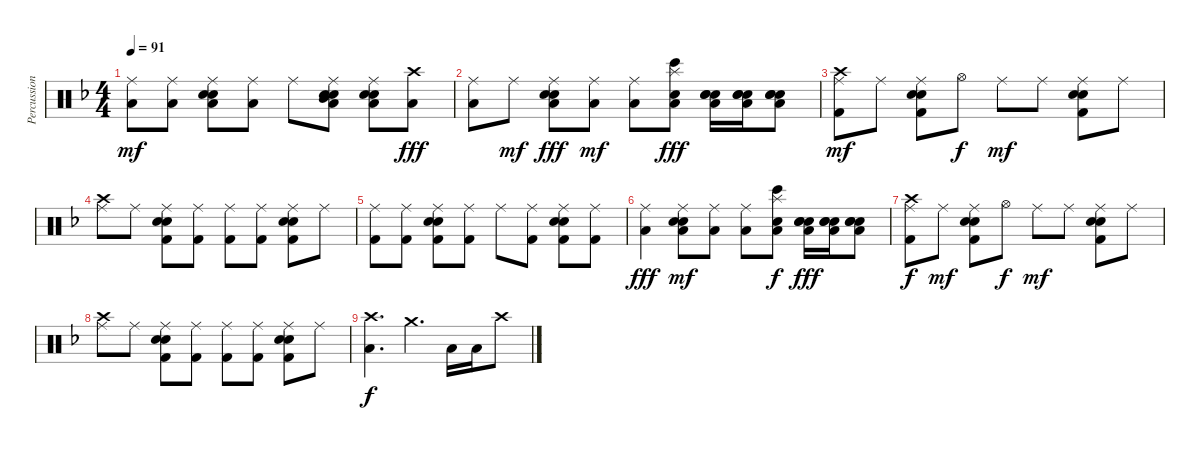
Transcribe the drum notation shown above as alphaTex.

\track ("Percussion" "Percussion") {instrument percussion}
\staff {score}
\articulation defaults
\ts (4 4)
\tempo 91
\clef neutral
\ks f
("Low Floor Tom (hit)" "Ride (middle)").8{dy mf} ("Low Floor Tom (hit)" "Ride (middle)").8 ("Electric Snare (hit)" "Low Floor Tom (hit)" "Snare (hit) 2" "Ride (middle)").8 ("Low Floor Tom (hit)" "Ride (middle)").8 "Ride (middle)".8 ("Electric Snare (hit)" "Low Floor Tom (hit)" "Mid Tom (hit)" "Snare (hit) 2" "Ride (middle)").8 ("Electric Snare (hit)" "Low Floor Tom (hit)" "Snare (hit) 2" "Ride (middle)").8 ("Low Floor Tom (hit)" "Crash high (hit)").8{dy fff} |
("Ride (middle)" "Low Floor Tom (hit)").8 "Ride (middle)".8{dy mf} ("Electric Snare (hit)" "Low Floor Tom (hit)" "Ride (middle)" "Snare (hit) 2").8{dy fff} ("Low Floor Tom (hit)" "Ride (middle)").8{dy mf} ("Low Floor Tom (hit)" "Ride (middle)").8 ("Bongo High (hit)" "Low Floor Tom (hit)" "Snare (hit) 2" "Splash (hit)").8{dy fff} ("Low Floor Tom (hit)" "Snare (hit) 2" "Electric Snare (hit)" "Hand Clap (hit)").16 ("Low Floor Tom (hit)" "Snare (hit) 2" "Electric Snare (hit)" "Hand Clap (hit)").16 ("Low Floor Tom (hit)" "Snare (hit) 2" "Electric Snare (hit)" "Hand Clap (hit)").8 |
("Kick (hit) 2" "Crash high (hit)" "Ride (middle)").8{dy mf} "Ride (middle)".8 ("Kick (hit) 2" "Snare (hit) 2" "Electric Snare (hit)" "Ride (middle)").8 "Hi-Hat (open)".8{dy f} "Ride (middle)".8{dy mf} "Ride (middle)".8 ("Electric Snare (hit)" "Snare (hit) 2" "Kick (hit) 2" "Ride (middle)").8 "Ride (middle)".8 |
("Crash high (hit)" "Ride (middle)").8 "Ride (middle)".8 ("Kick (hit) 2" "Snare (hit) 2" "Electric Snare (hit)" "Ride (middle)").8 ("Kick (hit) 2" "Ride (middle)").8 ("Kick (hit) 2" "Ride (middle)").8 ("Kick (hit) 2" "Ride (middle)").8 ("Electric Snare (hit)" "Kick (hit) 2" "Snare (hit) 2" "Ride (middle)").8 "Ride (middle)".8 |
("Kick (hit) 2" "Ride (middle)").8 ("Kick (hit) 2" "Ride (middle)").8 ("Electric Snare (hit)" "Kick (hit) 2" "Snare (hit) 2" "Ride (middle)").8 ("Kick (hit) 2" "Ride (middle)").8 "Ride (middle)".8 ("Kick (hit) 2" "Ride (middle)").8 ("Electric Snare (hit)" "Kick (hit) 2" "Snare (hit) 2" "Ride (middle)").8 ("Kick (hit) 2" "Ride (middle)").8 |
("Ride (middle)" "Low Floor Tom (hit)").4{dy fff} ("Electric Snare (hit)" "Low Floor Tom (hit)" "Snare (hit) 2" "Ride (middle)").8{dy mf} ("Low Floor Tom (hit)" "Ride (middle)").8 ("Low Floor Tom (hit)" "Ride (middle)").8 ("Bongo High (hit)" "Low Floor Tom (hit)" "Snare (hit) 2" "Splash (hit)").8{dy f} ("Low Floor Tom (hit)" "Snare (hit) 2" "Electric Snare (hit)" "Hand Clap (hit)").16{dy fff} ("Low Floor Tom (hit)" "Snare (hit) 2" "Electric Snare (hit)" "Hand Clap (hit)").16 ("Low Floor Tom (hit)" "Snare (hit) 2" "Electric Snare (hit)" "Hand Clap (hit)").8 |
("Kick (hit) 2" "Crash high (hit)" "Ride (middle)").8{dy f} "Ride (middle)".8{dy mf} ("Kick (hit) 2" "Snare (hit) 2" "Electric Snare (hit)" "Ride (middle)").8 "Hi-Hat (open)".8{dy f} "Ride (middle)".8{dy mf} "Ride (middle)".8 ("Electric Snare (hit)" "Snare (hit) 2" "Kick (hit) 2" "Ride (middle)").8 "Ride (middle)".8 |
("Crash high (hit)" "Ride (middle)").8 "Ride (middle)".8 ("Kick (hit) 2" "Snare (hit) 2" "Electric Snare (hit)" "Ride (middle)").8 ("Kick (hit) 2" "Ride (middle)").8 ("Kick (hit) 2" "Ride (middle)").8 ("Kick (hit) 2" "Ride (middle)").8 ("Electric Snare (hit)" "Kick (hit) 2" "Snare (hit) 2" "Ride (middle)").8 "Ride (middle)".8 |
("Low Floor Tom (hit)" "Crash high (hit)").4{d dy f} "Crash medium (hit)".4{d} "Low Floor Tom (hit)".16 "Low Floor Tom (hit)".16 "Crash high (hit)".8
